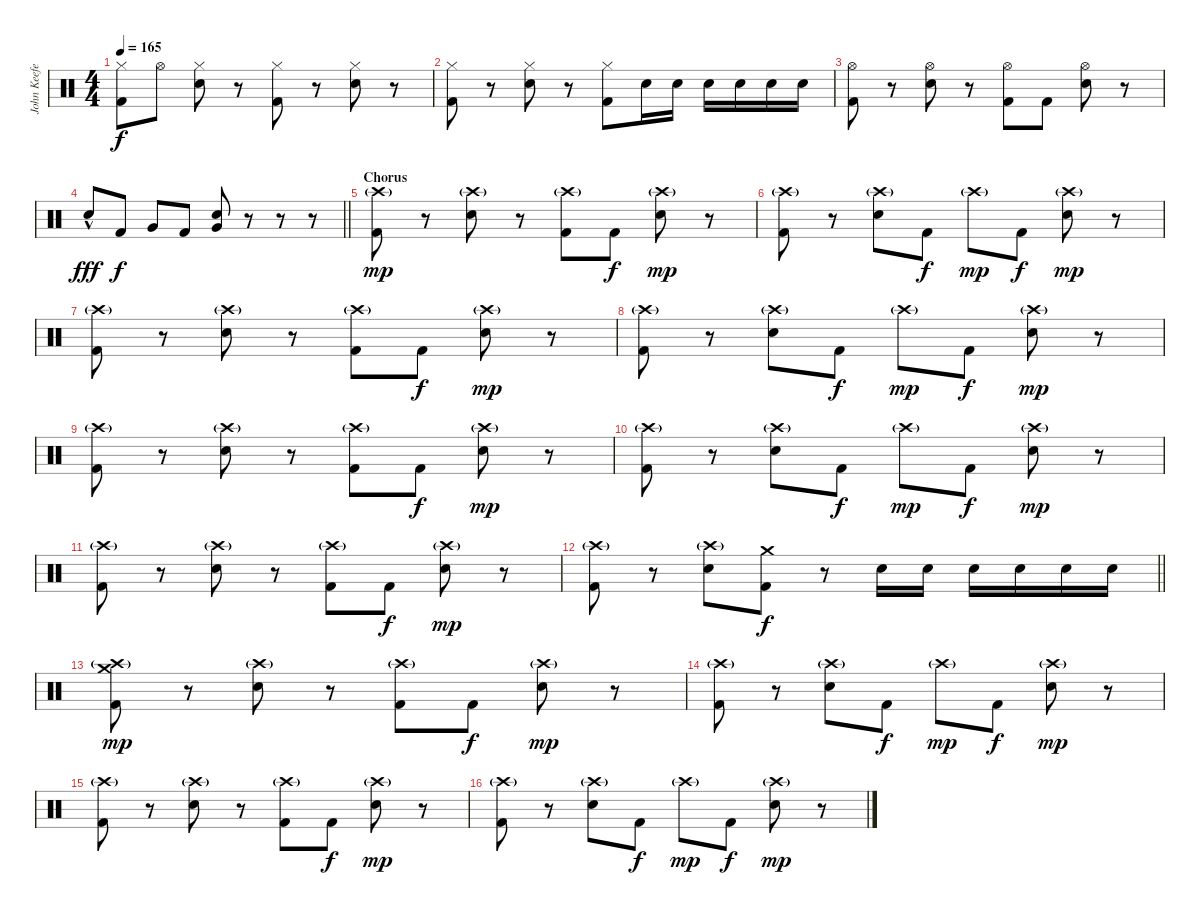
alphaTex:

\track ("John Keefe (Percussion)" "John Keefe") {instrument percussion}
\staff {score}
\articulation defaults
\ts (4 4)
\tempo 165
\clef neutral
\ks c
("Hi-Hat (closed)" "Kick (hit) 2").8{dy f} "Hi-Hat (open)".8 ("Hi-Hat (closed)" "Electric Snare (hit)").8 r.8 ("Hi-Hat (closed)" "Kick (hit) 2").8 r.8 ("Hi-Hat (closed)" "Electric Snare (hit)").8 r.8 |
("Hi-Hat (closed)" "Kick (hit) 2").8 r.8 ("Hi-Hat (closed)" "Electric Snare (hit)").8 r.8 ("Hi-Hat (closed)" "Kick (hit) 2").8 "Electric Snare (hit)".16 "Electric Snare (hit)".16 "Electric Snare (hit)".16 "Electric Snare (hit)".16 "Electric Snare (hit)".16 "Electric Snare (hit)".16 |
("Hi-Hat (open)" "Kick (hit) 2").8 r.8 ("Hi-Hat (open)" "Electric Snare (hit)").8 r.8 ("Hi-Hat (open)" "Kick (hit) 2").8 "Kick (hit) 2".8 ("Hi-Hat (open)" "Electric Snare (hit)").8 r.8 |
\barLineRight lightlight "Electric Snare (hit)"{hac}.8{dy fff} "Kick (hit) 2".8{dy f} "Very Low Tom (hit)".8 "Kick (hit) 2".8
("Very Low Tom (hit)" "Electric Snare (hit)").8 r.8 r.8 r.8 |
\section ("" "Chorus")
("Crash high (hit)"{g} "Kick (hit) 2").8{dy mp} r.8 ("Crash high (hit)"{g} "Electric Snare (hit)").8 r.8 ("Crash high (hit)"{g} "Kick (hit) 2").8 "Kick (hit) 2".8{dy f} ("Crash high (hit)"{g} "Electric Snare (hit)").8{dy mp} r.8 |
("Crash high (hit)"{g} "Kick (hit) 2").8 r.8 ("Crash high (hit)"{g} "Electric Snare (hit)").8 "Kick (hit) 2".8{dy f} "Crash high (hit)"{g}.8{dy mp} "Kick (hit) 2".8{dy f} ("Crash high (hit)"{g} "Electric Snare (hit)").8{dy mp} r.8 |
("Crash high (hit)"{g} "Kick (hit) 2").8 r.8 ("Crash high (hit)"{g} "Electric Snare (hit)").8 r.8 ("Crash high (hit)"{g} "Kick (hit) 2").8 "Kick (hit) 2".8{dy f} ("Crash high (hit)"{g} "Electric Snare (hit)").8{dy mp} r.8 |
("Crash high (hit)"{g} "Kick (hit) 2").8 r.8 ("Crash high (hit)"{g} "Electric Snare (hit)").8 "Kick (hit) 2".8{dy f} "Crash high (hit)"{g}.8{dy mp} "Kick (hit) 2".8{dy f} ("Crash high (hit)"{g} "Electric Snare (hit)").8{dy mp} r.8 |
("Crash high (hit)"{g} "Kick (hit) 2").8 r.8 ("Crash high (hit)"{g} "Electric Snare (hit)").8 r.8 ("Crash high (hit)"{g} "Kick (hit) 2").8 "Kick (hit) 2".8{dy f} ("Crash high (hit)"{g} "Electric Snare (hit)").8{dy mp} r.8 |
("Crash high (hit)"{g} "Kick (hit) 2").8 r.8 ("Crash high (hit)"{g} "Electric Snare (hit)").8 "Kick (hit) 2".8{dy f} "Crash high (hit)"{g}.8{dy mp} "Kick (hit) 2".8{dy f} ("Crash high (hit)"{g} "Electric Snare (hit)").8{dy mp} r.8 |
("Crash high (hit)"{g} "Kick (hit) 2").8 r.8 ("Crash high (hit)"{g} "Electric Snare (hit)").8 r.8 ("Crash high (hit)"{g} "Kick (hit) 2").8 "Kick (hit) 2".8{dy f} ("Crash high (hit)"{g} "Electric Snare (hit)").8{dy mp} r.8 |
\barLineRight lightlight
("Crash high (hit)"{g} "Kick (hit) 2").8 r.8 ("Crash high (hit)"{g} "Electric Snare (hit)").8 ("Crash medium (hit)" "Kick (hit) 2").8{dy f} r.8 "Electric Snare (hit)".16 "Electric Snare (hit)".16 "Electric Snare (hit)".16 "Electric Snare (hit)".16 "Electric Snare (hit)".16 "Electric Snare (hit)".16 |
("Crash high (hit)"{g} "Crash medium (hit)" "Kick (hit) 2").8{dy mp} r.8 ("Crash high (hit)"{g} "Electric Snare (hit)").8 r.8 ("Crash high (hit)"{g} "Kick (hit) 2").8 "Kick (hit) 2".8{dy f} ("Crash high (hit)"{g} "Electric Snare (hit)").8{dy mp} r.8 |
("Crash high (hit)"{g} "Kick (hit) 2").8 r.8 ("Crash high (hit)"{g} "Electric Snare (hit)").8 "Kick (hit) 2".8{dy f} "Crash high (hit)"{g}.8{dy mp} "Kick (hit) 2".8{dy f} ("Crash high (hit)"{g} "Electric Snare (hit)").8{dy mp} r.8 |
("Crash high (hit)"{g} "Kick (hit) 2").8 r.8 ("Crash high (hit)"{g} "Electric Snare (hit)").8 r.8 ("Crash high (hit)"{g} "Kick (hit) 2").8 "Kick (hit) 2".8{dy f} ("Crash high (hit)"{g} "Electric Snare (hit)").8{dy mp} r.8 |
("Crash high (hit)"{g} "Kick (hit) 2").8 r.8 ("Crash high (hit)"{g} "Electric Snare (hit)").8 "Kick (hit) 2".8{dy f} "Crash high (hit)"{g}.8{dy mp} "Kick (hit) 2".8{dy f} ("Crash high (hit)"{g} "Electric Snare (hit)").8{dy mp} r.8
